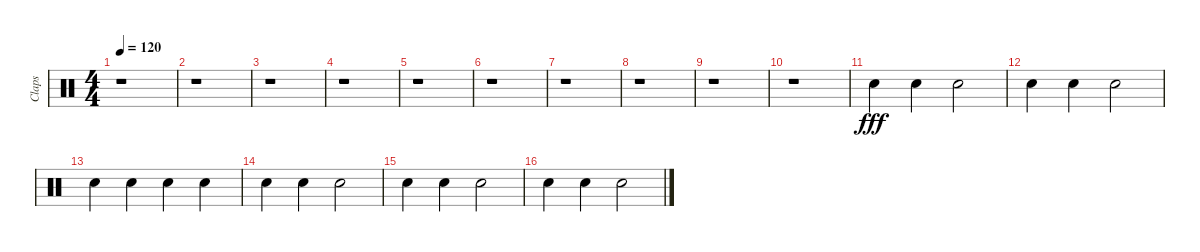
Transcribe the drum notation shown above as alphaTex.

\track ("Claps" "Claps") {instrument percussion}
\staff {score}
\articulation defaults
\ts (4 4)
\tempo 120
\clef neutral
\ks c
r.1{dy fff} |
r.1 |
r.1 |
r.1 |
r.1 |
r.1 |
r.1 |
r.1 |
r.1 |
r.1 |
"Hand Clap (hit)".4 "Hand Clap (hit)".4 "Hand Clap (hit)".2 |
"Hand Clap (hit)".4 "Hand Clap (hit)".4 "Hand Clap (hit)".2 |
"Hand Clap (hit)".4 "Hand Clap (hit)".4 "Hand Clap (hit)".4 "Hand Clap (hit)".4 |
"Hand Clap (hit)".4 "Hand Clap (hit)".4 "Hand Clap (hit)".2 |
"Hand Clap (hit)".4 "Hand Clap (hit)".4 "Hand Clap (hit)".2 |
"Hand Clap (hit)".4 "Hand Clap (hit)".4 "Hand Clap (hit)".2
